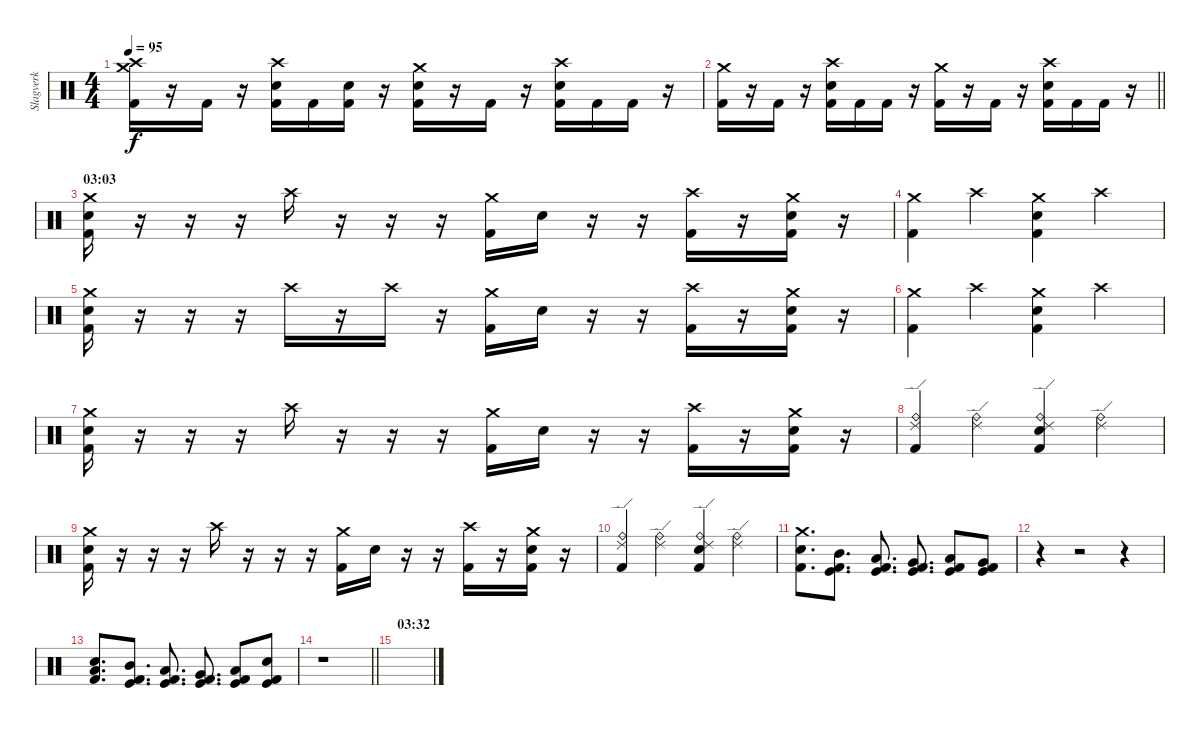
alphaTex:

\track ("Slagverk" "Slagverk") {instrument percussion}
\staff {score}
\articulation defaults
\ts (4 4)
\tempo 95
\clef neutral
\ks c
("Crash medium (hit)" "Crash high (hit)" "Kick (hit) 2").16{dy f} r.16 "Kick (hit) 2".16 r.16 ("Crash high (hit)" "Electric Snare (hit)" "Kick (hit) 2").16 "Kick (hit) 2".16 ("Electric Snare (hit)" "Kick (hit) 2").16 r.16 ("Crash medium (hit)" "Electric Snare (hit)" "Kick (hit) 2").16 r.16 "Kick (hit) 2".16 r.16 ("Crash high (hit)" "Electric Snare (hit)" "Kick (hit) 2").16 "Kick (hit) 2".16 "Kick (hit) 2".16 r.16 |
\barLineRight lightlight
("Crash medium (hit)" "Kick (hit) 2").16 r.16 "Kick (hit) 2".16 r.16 ("Crash high (hit)" "Electric Snare (hit)" "Kick (hit) 2").16 "Kick (hit) 2".16 "Kick (hit) 2".16 r.16 ("Crash medium (hit)" "Kick (hit) 2").16 r.16 "Kick (hit) 2".16 r.16 ("Crash high (hit)" "Electric Snare (hit)" "Kick (hit) 2").16 "Kick (hit) 2".16 "Kick (hit) 2".16 r.16 |
\section ("" "03:03")
("Crash medium (hit)" "Electric Snare (hit)" "Kick (hit) 2").16 r.16 r.16 r.16 "Crash high (hit)".16 r.16 r.16 r.16 ("Crash medium (hit)" "Kick (hit) 2").16 "Electric Snare (hit)".16 r.16 r.16 ("Crash high (hit)" "Kick (hit) 2").16 r.16 ("Crash medium (hit)" "Electric Snare (hit)" "Kick (hit) 2").16 r.16 |
("Crash medium (hit)" "Kick (hit) 2").4 "Crash high (hit)".4 ("Crash medium (hit)" "Electric Snare (hit)" "Kick (hit) 2").4 "Crash high (hit)".4 |
("Crash medium (hit)" "Electric Snare (hit)" "Kick (hit) 2").16 r.16 r.16 r.16 "Crash high (hit)".16 r.16 "Crash high (hit)".16 r.16 ("Crash medium (hit)" "Kick (hit) 2").16 "Electric Snare (hit)".16 r.16 r.16 ("Crash high (hit)" "Kick (hit) 2").16 r.16 ("Crash medium (hit)" "Electric Snare (hit)" "Kick (hit) 2").16 r.16 |
("Crash medium (hit)" "Kick (hit) 2").4 "Crash high (hit)".4 ("Crash medium (hit)" "Electric Snare (hit)" "Kick (hit) 2").4 "Crash high (hit)".4 |
("Crash medium (hit)" "Electric Snare (hit)" "Kick (hit) 2").16 r.16 r.16 r.16 "Crash high (hit)".16 r.16 r.16 r.16 ("Crash medium (hit)" "Kick (hit) 2").16 "Electric Snare (hit)".16 r.16 r.16 ("Crash high (hit)" "Kick (hit) 2").16 r.16 ("Crash medium (hit)" "Electric Snare (hit)" "Kick (hit) 2").16 r.16 |
("Ride (bell)" "Ride (edge) 2" "Kick (hit) 2").4 ("Ride (bell)" "Ride (edge) 2").4 ("Ride (bell)" "Ride (edge) 2" "Electric Snare (hit)" "Kick (hit) 2").4 ("Ride (bell)" "Ride (edge) 2").4 |
("Crash medium (hit)" "Electric Snare (hit)" "Kick (hit) 2").16 r.16 r.16 r.16 "Crash high (hit)".16 r.16 r.16 r.16 ("Crash medium (hit)" "Kick (hit) 2").16 "Electric Snare (hit)".16 r.16 r.16 ("Crash high (hit)" "Kick (hit) 2").16 r.16 ("Crash medium (hit)" "Electric Snare (hit)" "Kick (hit) 2").16 r.16 |
("Ride (bell)" "Ride (edge) 2" "Kick (hit) 2").4 ("Ride (bell)" "Ride (edge) 2").4 ("Ride (bell)" "Ride (edge) 2" "Electric Snare (hit)" "Kick (hit) 2").4 ("Ride (bell)" "Ride (edge) 2").4 |
("Crash medium (hit)" "Electric Snare (hit)" "Kick (hit) 2").8{d} ("Mid Tom (hit)" "Kick (hit) 2" "Kick (hit)").8{d} ("Low Tom (hit)" "Kick (hit) 2" "Kick (hit)").8{d} ("Very Low Tom (hit)" "Kick (hit) 2" "Kick (hit)").8{d} ("Low Floor Tom (hit)" "Kick (hit) 2" "Kick (hit)").8 ("Very Low Tom (hit)" "Kick (hit) 2" "Kick (hit)").8 |
r.4 r.2 r.4 |
("Low Floor Tom (hit)" "Electric Snare (hit)" "Kick (hit) 2").8{d} ("Mid Tom (hit)" "Kick (hit) 2" "Kick (hit)").8{d} ("Low Tom (hit)" "Kick (hit) 2" "Kick (hit)").8{d} ("Very Low Tom (hit)" "Kick (hit) 2" "Kick (hit)").8{d} ("Low Floor Tom (hit)" "Kick (hit) 2" "Kick (hit)").8 ("Electric Snare (hit)" "Kick (hit) 2" "Kick (hit)").8 |
\barLineRight lightlight
r.1 |
\section ("" "03:32")
